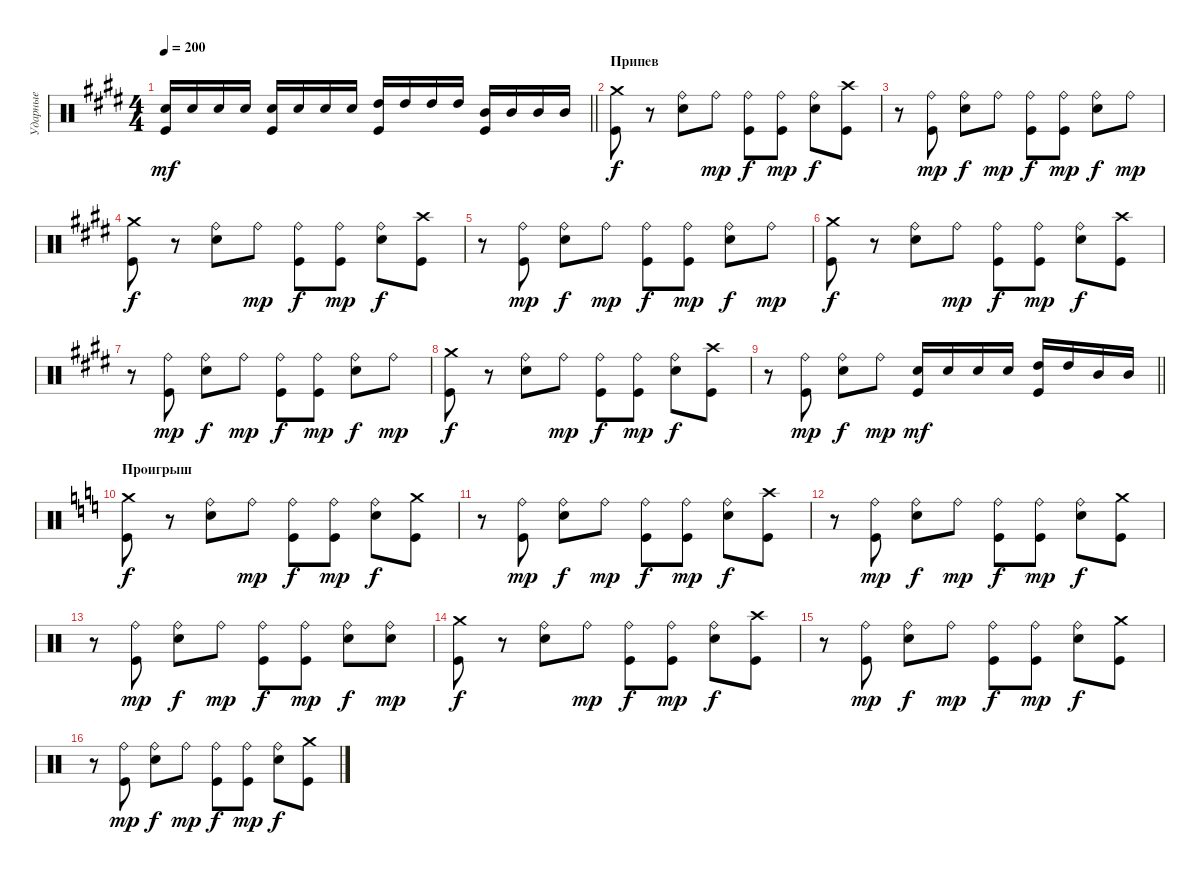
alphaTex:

\track ("Ударные" "Ударные") {instrument percussion}
\staff {score}
\articulation defaults
\ts (4 4)
\tempo 200
\clef neutral
\barLineRight lightlight
\ks c#minor
("Electric Snare (hit)" "Kick (hit)").16{dy mf} "Electric Snare (hit)".16 "Electric Snare (hit)".16 "Electric Snare (hit)".16 ("Electric Snare (hit)" "Kick (hit)").16 "Electric Snare (hit)".16 "Electric Snare (hit)".16 "Electric Snare (hit)".16 ("High Tom (hit)" "Kick (hit)").16 "High Tom (hit)".16 "High Tom (hit)".16 "High Tom (hit)".16 ("Mid Tom (hit)" "Kick (hit)").16 "Mid Tom (hit)".16 "Mid Tom (hit)".16 "Mid Tom (hit)".16 |
\section ("" "Припев")
("Crash medium (hit)" "Kick (hit)").8{dy f} r.8 ("Ride (bell)" "Electric Snare (hit)").8 "Ride (bell)".8{dy mp} ("Ride (bell)" "Kick (hit)").8{dy f} ("Ride (bell)" "Kick (hit)").8{dy mp} ("Ride (bell)" "Electric Snare (hit)").8{dy f} ("Crash high (hit)" "Kick (hit)").8 |
r.8 ("Ride (bell)" "Kick (hit)").8{dy mp} ("Ride (bell)" "Electric Snare (hit)").8{dy f} "Ride (bell)".8{dy mp} ("Ride (bell)" "Kick (hit)").8{dy f} ("Ride (bell)" "Kick (hit)").8{dy mp} ("Ride (bell)" "Electric Snare (hit)").8{dy f} "Ride (bell)".8{dy mp} |
("Crash medium (hit)" "Kick (hit)").8{dy f} r.8 ("Ride (bell)" "Electric Snare (hit)").8 "Ride (bell)".8{dy mp} ("Ride (bell)" "Kick (hit)").8{dy f} ("Ride (bell)" "Kick (hit)").8{dy mp} ("Ride (bell)" "Electric Snare (hit)").8{dy f} ("Crash high (hit)" "Kick (hit)").8 |
r.8 ("Ride (bell)" "Kick (hit)").8{dy mp} ("Ride (bell)" "Electric Snare (hit)").8{dy f} "Ride (bell)".8{dy mp} ("Ride (bell)" "Kick (hit)").8{dy f} ("Ride (bell)" "Kick (hit)").8{dy mp} ("Ride (bell)" "Electric Snare (hit)").8{dy f} "Ride (bell)".8{dy mp} |
("Crash medium (hit)" "Kick (hit)").8{dy f} r.8 ("Ride (bell)" "Electric Snare (hit)").8 "Ride (bell)".8{dy mp} ("Ride (bell)" "Kick (hit)").8{dy f} ("Ride (bell)" "Kick (hit)").8{dy mp} ("Ride (bell)" "Electric Snare (hit)").8{dy f} ("Crash high (hit)" "Kick (hit)").8 |
r.8 ("Ride (bell)" "Kick (hit)").8{dy mp} ("Ride (bell)" "Electric Snare (hit)").8{dy f} "Ride (bell)".8{dy mp} ("Ride (bell)" "Kick (hit)").8{dy f} ("Ride (bell)" "Kick (hit)").8{dy mp} ("Ride (bell)" "Electric Snare (hit)").8{dy f} "Ride (bell)".8{dy mp} |
("Crash medium (hit)" "Kick (hit)").8{dy f} r.8 ("Ride (bell)" "Electric Snare (hit)").8 "Ride (bell)".8{dy mp} ("Ride (bell)" "Kick (hit)").8{dy f} ("Ride (bell)" "Kick (hit)").8{dy mp} ("Ride (bell)" "Electric Snare (hit)").8{dy f} ("Crash high (hit)" "Kick (hit)").8 |
\barLineRight lightlight
r.8 ("Ride (bell)" "Kick (hit)").8{dy mp} ("Ride (bell)" "Electric Snare (hit)").8{dy f} "Ride (bell)".8{dy mp} ("Electric Snare (hit)" "Kick (hit)").16{dy mf} "Electric Snare (hit)".16 "Electric Snare (hit)".16 "Electric Snare (hit)".16 ("High Tom (hit)" "Kick (hit)").16 "High Tom (hit)".16 "Mid Tom (hit)".16 "Mid Tom (hit)".16 |
\section ("" "Проигрыш")
\ks c
("Crash medium (hit)" "Kick (hit)").8{dy f} r.8 ("Ride (bell)" "Electric Snare (hit)").8 "Ride (bell)".8{dy mp} ("Ride (bell)" "Kick (hit)").8{dy f} ("Ride (bell)" "Kick (hit)").8{dy mp} ("Ride (bell)" "Electric Snare (hit)").8{dy f} ("Crash medium (hit)" "Kick (hit)").8 |
r.8 ("Ride (bell)" "Kick (hit)").8{dy mp} ("Ride (bell)" "Electric Snare (hit)").8{dy f} "Ride (bell)".8{dy mp} ("Ride (bell)" "Kick (hit)").8{dy f} ("Ride (bell)" "Kick (hit)").8{dy mp} ("Ride (bell)" "Electric Snare (hit)").8{dy f} ("Crash high (hit)" "Kick (hit)").8 |
r.8 ("Ride (bell)" "Kick (hit)").8{dy mp} ("Ride (bell)" "Electric Snare (hit)").8{dy f} "Ride (bell)".8{dy mp} ("Ride (bell)" "Kick (hit)").8{dy f} ("Ride (bell)" "Kick (hit)").8{dy mp} ("Ride (bell)" "Electric Snare (hit)").8{dy f} ("Crash medium (hit)" "Kick (hit)").8 |
r.8 ("Ride (bell)" "Kick (hit)").8{dy mp} ("Ride (bell)" "Electric Snare (hit)").8{dy f} "Ride (bell)".8{dy mp} ("Ride (bell)" "Kick (hit)").8{dy f} ("Ride (bell)" "Kick (hit)").8{dy mp} ("Ride (bell)" "Electric Snare (hit)").8{dy f} ("Ride (bell)" "Electric Snare (hit)").8{dy mp} |
("Crash medium (hit)" "Kick (hit)").8{dy f} r.8 ("Ride (bell)" "Electric Snare (hit)").8 "Ride (bell)".8{dy mp} ("Ride (bell)" "Kick (hit)").8{dy f} ("Ride (bell)" "Kick (hit)").8{dy mp} ("Ride (bell)" "Electric Snare (hit)").8{dy f} ("Crash high (hit)" "Kick (hit)").8 |
r.8 ("Ride (bell)" "Kick (hit)").8{dy mp} ("Ride (bell)" "Electric Snare (hit)").8{dy f} "Ride (bell)".8{dy mp} ("Ride (bell)" "Kick (hit)").8{dy f} ("Ride (bell)" "Kick (hit)").8{dy mp} ("Ride (bell)" "Electric Snare (hit)").8{dy f} ("Crash medium (hit)" "Kick (hit)").8 |
r.8 ("Ride (bell)" "Kick (hit)").8{dy mp} ("Ride (bell)" "Electric Snare (hit)").8{dy f} "Ride (bell)".8{dy mp} ("Ride (bell)" "Kick (hit)").8{dy f} ("Ride (bell)" "Kick (hit)").8{dy mp} ("Ride (bell)" "Electric Snare (hit)").8{dy f} ("Crash medium (hit)" "Kick (hit)").8
